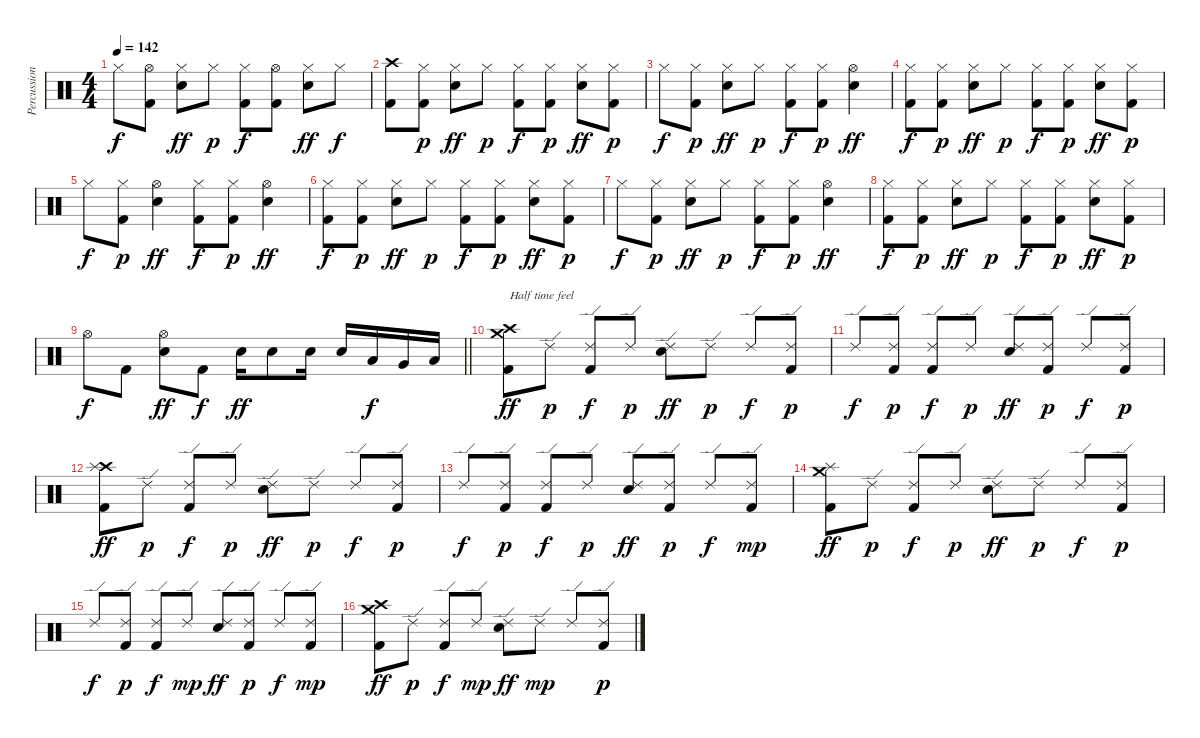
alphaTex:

\track ("Percussion" "Percussion") {instrument percussion}
\staff {score}
\articulation defaults
\ts (4 4)
\tempo 142
\clef neutral
\ks c "Hi-Hat (closed)".8{dy f}
("Hi-Hat (open)" "Kick (hit) 2").8 ("Hi-Hat (closed)" "Snare (hit) 2").8{dy ff} "Hi-Hat (closed)".8{dy p} ("Hi-Hat (closed)" "Kick (hit) 2").8{dy f} ("Hi-Hat (open)" "Kick (hit) 2").8 ("Hi-Hat (closed)" "Snare (hit) 2").8{dy ff} "Hi-Hat (closed)".8{dy f} |
("Crash high (hit)" "Kick (hit) 2").8 ("Hi-Hat (closed)" "Kick (hit) 2").8{dy p} ("Hi-Hat (closed)" "Snare (hit) 2").8{dy ff} "Hi-Hat (closed)".8{dy p} ("Hi-Hat (closed)" "Kick (hit) 2").8{dy f} ("Hi-Hat (closed)" "Kick (hit) 2").8{dy p} ("Hi-Hat (closed)" "Snare (hit) 2").8{dy ff} ("Hi-Hat (closed)" "Kick (hit) 2").8{dy p} |
"Hi-Hat (closed)".8{dy f} ("Hi-Hat (closed)" "Kick (hit) 2").8{dy p} ("Hi-Hat (closed)" "Snare (hit) 2").8{dy ff} "Hi-Hat (closed)".8{dy p} ("Hi-Hat (closed)" "Kick (hit) 2").8{dy f} ("Hi-Hat (closed)" "Kick (hit) 2").8{dy p} ("Hi-Hat (open)" "Snare (hit) 2").4{dy ff} |
("Hi-Hat (closed)" "Kick (hit) 2").8{dy f} ("Hi-Hat (closed)" "Kick (hit) 2").8{dy p} ("Hi-Hat (closed)" "Snare (hit) 2").8{dy ff} "Hi-Hat (closed)".8{dy p} ("Hi-Hat (closed)" "Kick (hit) 2").8{dy f} ("Hi-Hat (closed)" "Kick (hit) 2").8{dy p} ("Hi-Hat (closed)" "Snare (hit) 2").8{dy ff} ("Hi-Hat (closed)" "Kick (hit) 2").8{dy p} |
"Hi-Hat (closed)".8{dy f} ("Hi-Hat (closed)" "Kick (hit) 2").8{dy p} ("Hi-Hat (open)" "Snare (hit) 2").4{dy ff} ("Hi-Hat (closed)" "Kick (hit) 2").8{dy f} ("Hi-Hat (closed)" "Kick (hit) 2").8{dy p} ("Hi-Hat (open)" "Snare (hit) 2").4{dy ff} |
("Hi-Hat (closed)" "Kick (hit) 2").8{dy f} ("Hi-Hat (closed)" "Kick (hit) 2").8{dy p} ("Hi-Hat (closed)" "Snare (hit) 2").8{dy ff} "Hi-Hat (closed)".8{dy p} ("Hi-Hat (closed)" "Kick (hit) 2").8{dy f} ("Hi-Hat (closed)" "Kick (hit) 2").8{dy p} ("Hi-Hat (closed)" "Snare (hit) 2").8{dy ff} ("Hi-Hat (closed)" "Kick (hit) 2").8{dy p} |
"Hi-Hat (closed)".8{dy f} ("Hi-Hat (closed)" "Kick (hit) 2").8{dy p} ("Hi-Hat (closed)" "Snare (hit) 2").8{dy ff} "Hi-Hat (closed)".8{dy p} ("Hi-Hat (closed)" "Kick (hit) 2").8{dy f} ("Hi-Hat (closed)" "Kick (hit) 2").8{dy p} ("Hi-Hat (open)" "Snare (hit) 2").4{dy ff} |
("Hi-Hat (closed)" "Kick (hit) 2").8{dy f} ("Hi-Hat (closed)" "Kick (hit) 2").8{dy p} ("Hi-Hat (closed)" "Snare (hit) 2").8{dy ff} "Hi-Hat (closed)".8{dy p} ("Hi-Hat (closed)" "Kick (hit) 2").8{dy f} ("Hi-Hat (closed)" "Kick (hit) 2").8{dy p} ("Hi-Hat (closed)" "Snare (hit) 2").8{dy ff} ("Hi-Hat (closed)" "Kick (hit) 2").8{dy p} |
\barLineRight lightlight "Hi-Hat (open)".8{dy f} "Kick (hit) 2".8
("Hi-Hat (open)" "Snare (hit) 2").8{dy ff} "Kick (hit) 2".8{dy f} "Snare (hit) 2".16{dy ff} "Snare (hit) 2".8 "Snare (hit) 2".16 "Snare (hit) 2".16 "Low Tom (hit)".16{dy f} "Very Low Tom (hit)".16 "Low Floor Tom (hit)".16 |
("Crash high (hit)" "Crash medium (hit)" "Kick (hit) 2").8{txt "Half time feel" dy ff} "Ride (edge) 2".8{dy p} ("Ride (edge) 2" "Kick (hit) 2").8{dy f} "Ride (edge) 2".8{dy p} ("Ride (edge) 2" "Snare (hit) 2").8{dy ff} "Ride (edge) 2".8{dy p} "Ride (edge) 2".8{dy f} ("Ride (edge) 2" "Kick (hit) 2").8{dy p} |
"Ride (edge) 2".8{dy f} ("Ride (edge) 2" "Kick (hit) 2").8{dy p} ("Ride (edge) 2" "Kick (hit) 2").8{dy f} "Ride (edge) 2".8{dy p} ("Ride (edge) 2" "Snare (hit) 2").8{dy ff} ("Ride (edge) 2" "Kick (hit) 2").8{dy p} "Ride (edge) 2".8{dy f} ("Ride (edge) 2" "Kick (hit) 2").8{dy p} |
("Crash high (hit)" "Splash (hit)" "Kick (hit) 2").8{dy ff} "Ride (edge) 2".8{dy p} ("Ride (edge) 2" "Kick (hit) 2").8{dy f} "Ride (edge) 2".8{dy p} ("Ride (edge) 2" "Snare (hit) 2").8{dy ff} "Ride (edge) 2".8{dy p} "Ride (edge) 2".8{dy f} ("Ride (edge) 2" "Kick (hit) 2").8{dy p} |
"Ride (edge) 2".8{dy f} ("Ride (edge) 2" "Kick (hit) 2").8{dy p} ("Ride (edge) 2" "Kick (hit) 2").8{dy f} "Ride (edge) 2".8{dy p} ("Ride (edge) 2" "Snare (hit) 2").8{dy ff} ("Ride (edge) 2" "Kick (hit) 2").8{dy p} "Ride (edge) 2".8{dy f} ("Ride (edge) 2" "Kick (hit) 2").8{dy mp} |
("Crash medium (hit)" "Splash (hit)" "Kick (hit) 2").8{dy ff} "Ride (edge) 2".8{dy p} ("Ride (edge) 2" "Kick (hit) 2").8{dy f} "Ride (edge) 2".8{dy p} ("Ride (edge) 2" "Snare (hit) 2").8{dy ff} "Ride (edge) 2".8{dy p} "Ride (edge) 2".8{dy f} ("Ride (edge) 2" "Kick (hit) 2").8{dy p} |
"Ride (edge) 2".8{dy f} ("Ride (edge) 2" "Kick (hit) 2").8{dy p} ("Ride (edge) 2" "Kick (hit) 2").8{dy f} "Ride (edge) 2".8{dy mp} ("Ride (edge) 2" "Snare (hit) 2").8{dy ff} ("Ride (edge) 2" "Kick (hit) 2").8{dy p} "Ride (edge) 2".8{dy f} ("Ride (edge) 2" "Kick (hit) 2").8{dy mp} |
("Crash high (hit)" "Crash medium (hit)" "Kick (hit) 2").8{dy ff} "Ride (edge) 2".8{dy p} ("Ride (edge) 2" "Kick (hit) 2").8{dy f} "Ride (edge) 2".8{dy mp} ("Ride (edge) 2" "Snare (hit) 2").8{dy ff} "Ride (edge) 2".8{dy mp} "Ride (edge) 2".8 ("Ride (edge) 2" "Kick (hit) 2").8{dy p}
